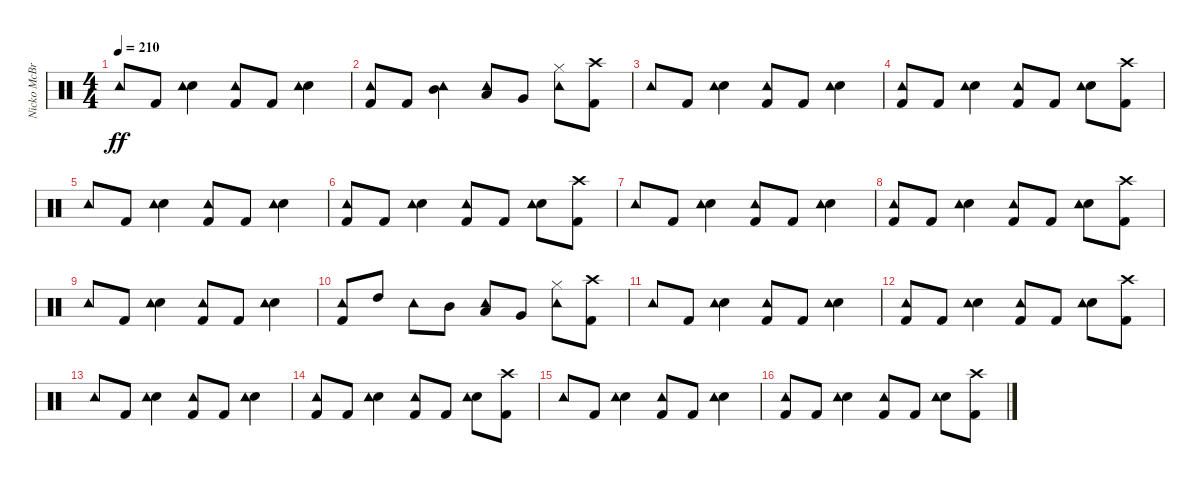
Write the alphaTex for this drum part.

\track ("Nicko McBrain" "Nicko McBr") {instrument percussion}
\staff {score}
\articulation defaults
\ts (4 4)
\tempo 210
\clef neutral
\ks c "Tambourine (hit)".8{dy ff} "Kick (hit) 2".8
("Snare (hit) 2" "Tambourine (hit)").4 ("Kick (hit) 2" "Tambourine (hit)").8 "Kick (hit) 2".8 ("Snare (hit) 2" "Tambourine (hit)").4 |
("Kick (hit) 2" "Tambourine (hit)").8 "Kick (hit) 2".8 ("Mid Tom (hit)" "Tambourine (hit)").4 ("Low Tom (hit)" "Tambourine (hit)").8 "Very Low Tom (hit)".8 ("Hi-Hat (closed)" "Tambourine (hit)").8 ("Kick (hit) 2" "Crash high (hit)").8 |
"Tambourine (hit)".8 "Kick (hit) 2".8 ("Snare (hit) 2" "Tambourine (hit)").4 ("Kick (hit) 2" "Tambourine (hit)").8 "Kick (hit) 2".8 ("Snare (hit) 2" "Tambourine (hit)").4 |
("Kick (hit) 2" "Tambourine (hit)").8 "Kick (hit) 2".8 ("Snare (hit) 2" "Tambourine (hit)").4 ("Kick (hit) 2" "Tambourine (hit)").8 "Kick (hit) 2".8 ("Snare (hit) 2" "Tambourine (hit)").8 ("Kick (hit) 2" "Crash high (hit)").8 |
"Tambourine (hit)".8 "Kick (hit) 2".8 ("Snare (hit) 2" "Tambourine (hit)").4 ("Kick (hit) 2" "Tambourine (hit)").8 "Kick (hit) 2".8 ("Snare (hit) 2" "Tambourine (hit)").4 |
("Kick (hit) 2" "Tambourine (hit)").8 "Kick (hit) 2".8 ("Snare (hit) 2" "Tambourine (hit)").4 ("Kick (hit) 2" "Tambourine (hit)").8 "Kick (hit) 2".8 ("Snare (hit) 2" "Tambourine (hit)").8 ("Kick (hit) 2" "Crash high (hit)").8 |
"Tambourine (hit)".8 "Kick (hit) 2".8 ("Snare (hit) 2" "Tambourine (hit)").4 ("Kick (hit) 2" "Tambourine (hit)").8 "Kick (hit) 2".8 ("Snare (hit) 2" "Tambourine (hit)").4 |
("Kick (hit) 2" "Tambourine (hit)").8 "Kick (hit) 2".8 ("Snare (hit) 2" "Tambourine (hit)").4 ("Kick (hit) 2" "Tambourine (hit)").8 "Kick (hit) 2".8 ("Snare (hit) 2" "Tambourine (hit)").8 ("Kick (hit) 2" "Crash high (hit)").8 |
"Tambourine (hit)".8 "Kick (hit) 2".8 ("Snare (hit) 2" "Tambourine (hit)").4 ("Kick (hit) 2" "Tambourine (hit)").8 "Kick (hit) 2".8 ("Snare (hit) 2" "Tambourine (hit)").4 |
("Kick (hit) 2" "Tambourine (hit)").8 "High Tom (hit)".8 "Tambourine (hit)".8 "Mid Tom (hit)".8 ("Low Tom (hit)" "Tambourine (hit)").8 "Very Low Tom (hit)".8 ("Hi-Hat (closed)" "Tambourine (hit)").8 ("Kick (hit) 2" "Crash high (hit)").8 |
"Tambourine (hit)".8 "Kick (hit) 2".8 ("Snare (hit) 2" "Tambourine (hit)").4 ("Kick (hit) 2" "Tambourine (hit)").8 "Kick (hit) 2".8 ("Snare (hit) 2" "Tambourine (hit)").4 |
("Kick (hit) 2" "Tambourine (hit)").8 "Kick (hit) 2".8 ("Snare (hit) 2" "Tambourine (hit)").4 ("Kick (hit) 2" "Tambourine (hit)").8 "Kick (hit) 2".8 ("Snare (hit) 2" "Tambourine (hit)").8 ("Kick (hit) 2" "Crash high (hit)").8 |
"Tambourine (hit)".8 "Kick (hit) 2".8 ("Snare (hit) 2" "Tambourine (hit)").4 ("Kick (hit) 2" "Tambourine (hit)").8 "Kick (hit) 2".8 ("Snare (hit) 2" "Tambourine (hit)").4 |
("Kick (hit) 2" "Tambourine (hit)").8 "Kick (hit) 2".8 ("Snare (hit) 2" "Tambourine (hit)").4 ("Kick (hit) 2" "Tambourine (hit)").8 "Kick (hit) 2".8 ("Snare (hit) 2" "Tambourine (hit)").8 ("Kick (hit) 2" "Crash high (hit)").8 |
"Tambourine (hit)".8 "Kick (hit) 2".8 ("Snare (hit) 2" "Tambourine (hit)").4 ("Kick (hit) 2" "Tambourine (hit)").8 "Kick (hit) 2".8 ("Snare (hit) 2" "Tambourine (hit)").4 |
("Kick (hit) 2" "Tambourine (hit)").8 "Kick (hit) 2".8 ("Snare (hit) 2" "Tambourine (hit)").4 ("Kick (hit) 2" "Tambourine (hit)").8 "Kick (hit) 2".8 ("Snare (hit) 2" "Tambourine (hit)").8 ("Kick (hit) 2" "Crash high (hit)").8
